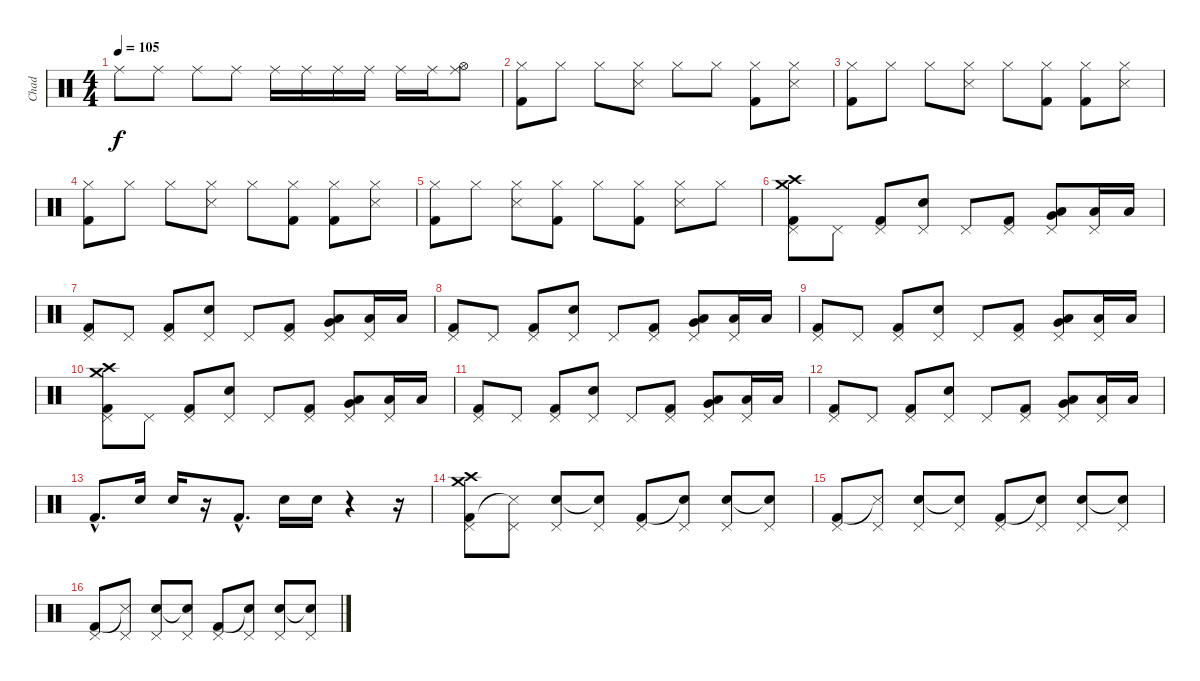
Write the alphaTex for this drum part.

\track ("Chad" "Chad") {instrument percussion}
\staff {score}
\articulation defaults
\ts (4 4)
\tempo 105
\clef neutral
\ks c "Ride (middle)".8{dy f} "Ride (middle)".8 "Ride (middle)".8 "Ride (middle)".8 "Ride (middle)".16 "Ride (middle)".16 "Ride (middle)".16 "Ride (middle)".16 "Ride (middle)".16 "Ride (middle)".16
("Hi-Hat (open)" "Ride (middle)").8 |
("Hi-Hat (closed)" "Kick (hit) 2").8 "Hi-Hat (closed)".8 "Hi-Hat (closed)".8 ("Hi-Hat (closed)" "Metronome (hit)").8 "Hi-Hat (closed)".8 "Hi-Hat (closed)".8 ("Hi-Hat (closed)" "Kick (hit) 2").8 ("Hi-Hat (closed)" "Metronome (hit)").8 |
("Hi-Hat (closed)" "Kick (hit) 2").8 "Hi-Hat (closed)".8 "Hi-Hat (closed)".8 ("Hi-Hat (closed)" "Metronome (hit)").8 "Hi-Hat (closed)".8 ("Hi-Hat (closed)" "Kick (hit) 2").8 ("Hi-Hat (closed)" "Kick (hit) 2").8 ("Hi-Hat (closed)" "Metronome (hit)").8 |
("Hi-Hat (closed)" "Kick (hit) 2").8 "Hi-Hat (closed)".8 "Hi-Hat (closed)".8 ("Hi-Hat (closed)" "Metronome (hit)").8 "Hi-Hat (closed)".8 ("Hi-Hat (closed)" "Kick (hit) 2").8 ("Hi-Hat (closed)" "Kick (hit) 2").8 ("Hi-Hat (closed)" "Metronome (hit)").8 |
("Hi-Hat (closed)" "Kick (hit) 2").8 "Hi-Hat (closed)".8 ("Hi-Hat (closed)" "Metronome (hit)").8 ("Hi-Hat (closed)" "Kick (hit) 2").8 "Hi-Hat (closed)".8 ("Hi-Hat (closed)" "Kick (hit) 2").8 ("Hi-Hat (closed)" "Metronome (hit)").8 "Hi-Hat (closed)".8 |
("Pedal Hi-Hat (hit)" "Kick (hit) 2" "Crash medium (hit)" "Crash high (hit)").8 "Pedal Hi-Hat (hit)".8 ("Pedal Hi-Hat (hit)" "Kick (hit) 2").8 ("Pedal Hi-Hat (hit)" "Electric Snare (hit)").8 "Pedal Hi-Hat (hit)".8 ("Pedal Hi-Hat (hit)" "Kick (hit) 2").8 ("Pedal Hi-Hat (hit)" "Very Low Tom (hit)" "Low Tom (hit)").8 ("Pedal Hi-Hat (hit)" "Low Floor Tom (hit)").16 "Low Floor Tom (hit)".16 |
("Pedal Hi-Hat (hit)" "Kick (hit) 2").8 "Pedal Hi-Hat (hit)".8 ("Pedal Hi-Hat (hit)" "Kick (hit) 2").8 ("Pedal Hi-Hat (hit)" "Electric Snare (hit)").8 "Pedal Hi-Hat (hit)".8 ("Pedal Hi-Hat (hit)" "Kick (hit) 2").8 ("Pedal Hi-Hat (hit)" "Very Low Tom (hit)" "Low Tom (hit)").8 ("Pedal Hi-Hat (hit)" "Low Floor Tom (hit)").16 "Low Floor Tom (hit)".16 |
("Pedal Hi-Hat (hit)" "Kick (hit) 2").8 "Pedal Hi-Hat (hit)".8 ("Pedal Hi-Hat (hit)" "Kick (hit) 2").8 ("Pedal Hi-Hat (hit)" "Electric Snare (hit)").8 "Pedal Hi-Hat (hit)".8 ("Pedal Hi-Hat (hit)" "Kick (hit) 2").8 ("Pedal Hi-Hat (hit)" "Very Low Tom (hit)" "Low Tom (hit)").8 ("Pedal Hi-Hat (hit)" "Low Floor Tom (hit)").16 "Low Floor Tom (hit)".16 |
("Pedal Hi-Hat (hit)" "Kick (hit) 2").8 "Pedal Hi-Hat (hit)".8 ("Pedal Hi-Hat (hit)" "Kick (hit) 2").8 ("Pedal Hi-Hat (hit)" "Electric Snare (hit)").8 "Pedal Hi-Hat (hit)".8 ("Pedal Hi-Hat (hit)" "Kick (hit) 2").8 ("Pedal Hi-Hat (hit)" "Very Low Tom (hit)" "Low Tom (hit)").8 ("Pedal Hi-Hat (hit)" "Low Floor Tom (hit)").16 "Low Floor Tom (hit)".16 |
("Pedal Hi-Hat (hit)" "Kick (hit) 2" "Crash medium (hit)" "Crash high (hit)").8 "Pedal Hi-Hat (hit)".8 ("Pedal Hi-Hat (hit)" "Kick (hit) 2").8 ("Pedal Hi-Hat (hit)" "Electric Snare (hit)").8 "Pedal Hi-Hat (hit)".8 ("Pedal Hi-Hat (hit)" "Kick (hit) 2").8 ("Pedal Hi-Hat (hit)" "Very Low Tom (hit)" "Low Tom (hit)").8 ("Pedal Hi-Hat (hit)" "Low Floor Tom (hit)").16 "Low Floor Tom (hit)".16 |
("Pedal Hi-Hat (hit)" "Kick (hit) 2").8 "Pedal Hi-Hat (hit)".8 ("Pedal Hi-Hat (hit)" "Kick (hit) 2").8 ("Pedal Hi-Hat (hit)" "Electric Snare (hit)").8 "Pedal Hi-Hat (hit)".8 ("Pedal Hi-Hat (hit)" "Kick (hit) 2").8 ("Pedal Hi-Hat (hit)" "Very Low Tom (hit)" "Low Tom (hit)").8 ("Pedal Hi-Hat (hit)" "Low Floor Tom (hit)").16 "Low Floor Tom (hit)".16 |
("Pedal Hi-Hat (hit)" "Kick (hit) 2").8 "Pedal Hi-Hat (hit)".8 ("Pedal Hi-Hat (hit)" "Kick (hit) 2").8 ("Pedal Hi-Hat (hit)" "Electric Snare (hit)").8 "Pedal Hi-Hat (hit)".8 ("Pedal Hi-Hat (hit)" "Kick (hit) 2").8 ("Pedal Hi-Hat (hit)" "Very Low Tom (hit)" "Low Tom (hit)").8 ("Pedal Hi-Hat (hit)" "Low Floor Tom (hit)").16 "Low Floor Tom (hit)".16 |
"Kick (hit) 2"{hac}.8{d} "Electric Snare (hit)".16 "Electric Snare (hit)".16 r.16 "Kick (hit) 2"{hac}.8{d} "Electric Snare (hit)".16 "Electric Snare (hit)".16 r.4 r.16 |
("Pedal Hi-Hat (hit)" "Kick (hit) 2" "Crash medium (hit)" "Crash high (hit)").8 ("Pedal Hi-Hat (hit)" "Snare (side stick) 3"{t}).8 ("Pedal Hi-Hat (hit)" "Electric Snare (hit)").8 ("Pedal Hi-Hat (hit)" "Snare (hit)"{t}).8 ("Pedal Hi-Hat (hit)" "Kick (hit) 2").8 ("Pedal Hi-Hat (hit)" "Snare (hit)"{t}).8 ("Pedal Hi-Hat (hit)" "Electric Snare (hit)").8 ("Pedal Hi-Hat (hit)" "Snare (hit)"{t}).8 |
("Pedal Hi-Hat (hit)" "Kick (hit) 2").8 ("Pedal Hi-Hat (hit)" "Snare (side stick) 3"{t}).8 ("Pedal Hi-Hat (hit)" "Electric Snare (hit)").8 ("Pedal Hi-Hat (hit)" "Snare (hit)"{t}).8 ("Pedal Hi-Hat (hit)" "Kick (hit) 2").8 ("Pedal Hi-Hat (hit)" "Snare (hit)"{t}).8 ("Pedal Hi-Hat (hit)" "Electric Snare (hit)").8 ("Pedal Hi-Hat (hit)" "Snare (hit)"{t}).8 |
("Pedal Hi-Hat (hit)" "Kick (hit) 2").8 ("Pedal Hi-Hat (hit)" "Snare (side stick) 3"{t}).8 ("Pedal Hi-Hat (hit)" "Electric Snare (hit)").8 ("Pedal Hi-Hat (hit)" "Snare (hit)"{t}).8 ("Pedal Hi-Hat (hit)" "Kick (hit) 2").8 ("Pedal Hi-Hat (hit)" "Snare (hit)"{t}).8 ("Pedal Hi-Hat (hit)" "Electric Snare (hit)").8 ("Pedal Hi-Hat (hit)" "Snare (hit)"{t}).8
